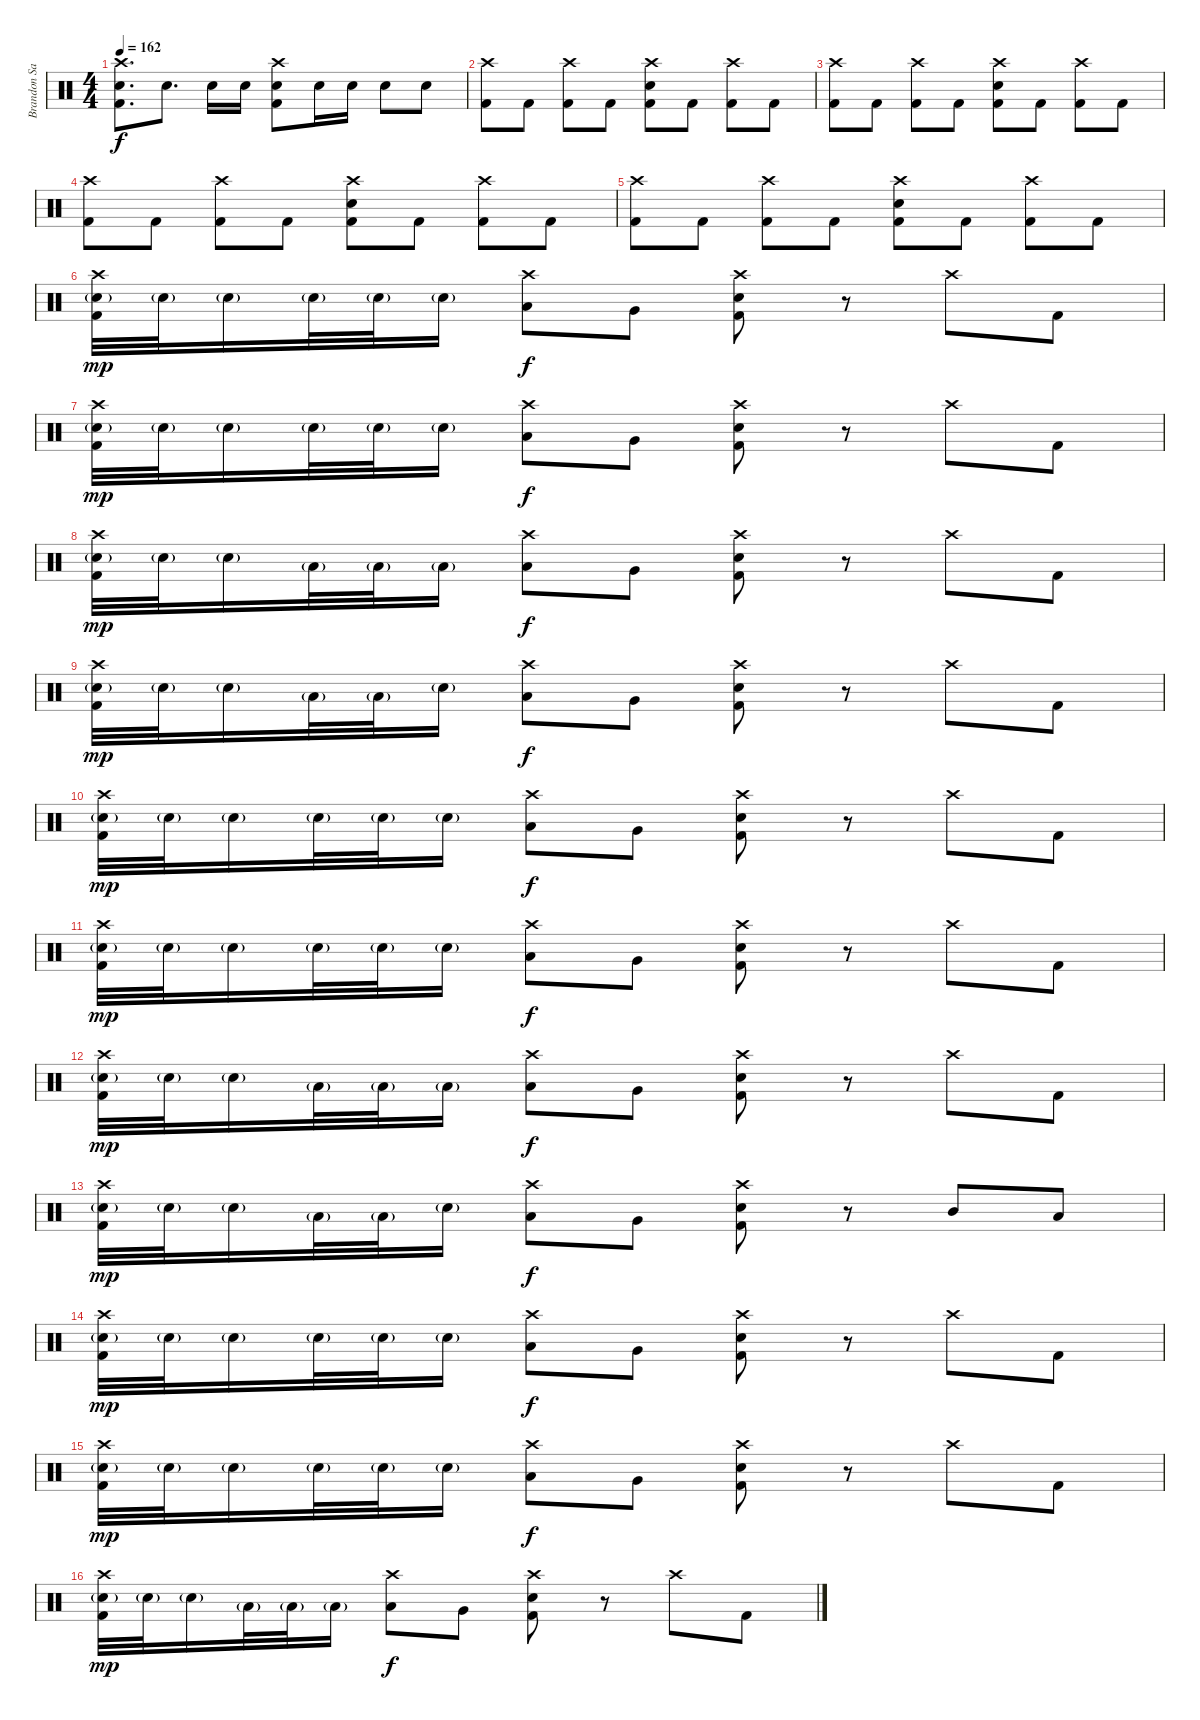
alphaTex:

\track ("Brandon Saller" "Brandon Sa") {instrument percussion}
\staff {score}
\articulation defaults
\ts (4 4)
\tempo 162
\clef neutral
\ks c
("Crash high (hit)" "Electric Snare (hit)" "Kick (hit) 2").8{d dy f} "Electric Snare (hit)".8{d} "Electric Snare (hit)".16 "Electric Snare (hit)".16 ("Crash high (hit)" "Electric Snare (hit)" "Kick (hit) 2").8 "Electric Snare (hit)".16 "Electric Snare (hit)".16 "Electric Snare (hit)".8 "Electric Snare (hit)".8 |
("Crash high (hit)" "Kick (hit) 2").8 "Kick (hit) 2".8 ("Crash high (hit)" "Kick (hit) 2").8 "Kick (hit) 2".8 ("Crash high (hit)" "Electric Snare (hit)" "Kick (hit) 2").8 "Kick (hit) 2".8 ("Crash high (hit)" "Kick (hit) 2").8 "Kick (hit) 2".8 |
("Crash high (hit)" "Kick (hit) 2").8 "Kick (hit) 2".8 ("Crash high (hit)" "Kick (hit) 2").8 "Kick (hit) 2".8 ("Crash high (hit)" "Electric Snare (hit)" "Kick (hit) 2").8 "Kick (hit) 2".8 ("Crash high (hit)" "Kick (hit) 2").8 "Kick (hit) 2".8 |
("Crash high (hit)" "Kick (hit) 2").8 "Kick (hit) 2".8 ("Crash high (hit)" "Kick (hit) 2").8 "Kick (hit) 2".8 ("Crash high (hit)" "Electric Snare (hit)" "Kick (hit) 2").8 "Kick (hit) 2".8 ("Crash high (hit)" "Kick (hit) 2").8 "Kick (hit) 2".8 |
("Crash high (hit)" "Kick (hit) 2").8 "Kick (hit) 2".8 ("Crash high (hit)" "Kick (hit) 2").8 "Kick (hit) 2".8 ("Crash high (hit)" "Electric Snare (hit)" "Kick (hit) 2").8 "Kick (hit) 2".8 ("Crash high (hit)" "Kick (hit) 2").8 "Kick (hit) 2".8 |
("Crash high (hit)" "Electric Snare (hit)"{g} "Kick (hit) 2").32{dy mp volume 12} "Electric Snare (hit)"{g}.32 "Electric Snare (hit)"{g}.16 "Electric Snare (hit)"{g}.32 "Electric Snare (hit)"{g}.32 "Electric Snare (hit)"{g}.16 ("Crash high (hit)" "Low Tom (hit)").8{dy f} "Very Low Tom (hit)".8 ("Crash high (hit)" "Electric Snare (hit)" "Kick (hit) 2").8 r.8 "Crash high (hit)".8 "Kick (hit) 2".8 |
("Crash high (hit)" "Electric Snare (hit)"{g} "Kick (hit) 2").32{dy mp} "Electric Snare (hit)"{g}.32 "Electric Snare (hit)"{g}.16 "Electric Snare (hit)"{g}.32 "Electric Snare (hit)"{g}.32 "Electric Snare (hit)"{g}.16 ("Crash high (hit)" "Low Tom (hit)").8{dy f} "Very Low Tom (hit)".8 ("Crash high (hit)" "Electric Snare (hit)" "Kick (hit) 2").8 r.8 "Crash high (hit)".8 "Kick (hit) 2".8 |
("Crash high (hit)" "Electric Snare (hit)"{g} "Kick (hit) 2").32{dy mp} "Electric Snare (hit)"{g}.32 "Electric Snare (hit)"{g}.16 "Low Floor Tom (hit)"{g}.32 "Low Floor Tom (hit)"{g}.32 "Low Floor Tom (hit)"{g}.16 ("Crash high (hit)" "Low Tom (hit)").8{dy f} "Very Low Tom (hit)".8 ("Crash high (hit)" "Electric Snare (hit)" "Kick (hit) 2").8 r.8 "Crash high (hit)".8 "Kick (hit) 2".8 |
("Crash high (hit)" "Electric Snare (hit)"{g} "Kick (hit) 2").32{dy mp} "Electric Snare (hit)"{g}.32 "Electric Snare (hit)"{g}.16 "Low Floor Tom (hit)"{g}.32 "Low Floor Tom (hit)"{g}.32 "Snare (hit)"{g}.16 ("Crash high (hit)" "Low Tom (hit)").8{dy f} "Very Low Tom (hit)".8 ("Crash high (hit)" "Electric Snare (hit)" "Kick (hit) 2").8 r.8 "Crash high (hit)".8 "Kick (hit) 2".8 |
("Crash high (hit)" "Electric Snare (hit)"{g} "Kick (hit) 2").32{dy mp} "Electric Snare (hit)"{g}.32 "Electric Snare (hit)"{g}.16 "Electric Snare (hit)"{g}.32 "Electric Snare (hit)"{g}.32 "Electric Snare (hit)"{g}.16 ("Crash high (hit)" "Low Tom (hit)").8{dy f} "Very Low Tom (hit)".8 ("Crash high (hit)" "Electric Snare (hit)" "Kick (hit) 2").8 r.8 "Crash high (hit)".8 "Kick (hit) 2".8 |
("Crash high (hit)" "Electric Snare (hit)"{g} "Kick (hit) 2").32{dy mp} "Electric Snare (hit)"{g}.32 "Electric Snare (hit)"{g}.16 "Electric Snare (hit)"{g}.32 "Electric Snare (hit)"{g}.32 "Electric Snare (hit)"{g}.16 ("Crash high (hit)" "Low Tom (hit)").8{dy f} "Very Low Tom (hit)".8 ("Crash high (hit)" "Electric Snare (hit)" "Kick (hit) 2").8 r.8 "Crash high (hit)".8 "Kick (hit) 2".8 |
("Crash high (hit)" "Electric Snare (hit)"{g} "Kick (hit) 2").32{dy mp} "Electric Snare (hit)"{g}.32 "Electric Snare (hit)"{g}.16 "Low Floor Tom (hit)"{g}.32 "Low Floor Tom (hit)"{g}.32 "Low Floor Tom (hit)"{g}.16 ("Crash high (hit)" "Low Tom (hit)").8{dy f} "Very Low Tom (hit)".8 ("Crash high (hit)" "Electric Snare (hit)" "Kick (hit) 2").8 r.8 "Crash high (hit)".8 "Kick (hit) 2".8 |
("Crash high (hit)" "Electric Snare (hit)"{g} "Kick (hit) 2").32{dy mp} "Electric Snare (hit)"{g}.32 "Electric Snare (hit)"{g}.16 "Low Floor Tom (hit)"{g}.32 "Low Floor Tom (hit)"{g}.32 "Snare (hit)"{g}.16 ("Crash high (hit)" "Low Tom (hit)").8{dy f} "Very Low Tom (hit)".8 ("Crash high (hit)" "Electric Snare (hit)" "Kick (hit) 2").8 r.8 "Mid Tom (hit)".8 "Low Tom (hit)".8 |
("Crash high (hit)" "Electric Snare (hit)"{g} "Kick (hit) 2").32{dy mp} "Electric Snare (hit)"{g}.32 "Electric Snare (hit)"{g}.16 "Electric Snare (hit)"{g}.32 "Electric Snare (hit)"{g}.32 "Electric Snare (hit)"{g}.16 ("Crash high (hit)" "Low Tom (hit)").8{dy f} "Very Low Tom (hit)".8 ("Crash high (hit)" "Electric Snare (hit)" "Kick (hit) 2").8 r.8 "Crash high (hit)".8 "Kick (hit) 2".8 |
("Crash high (hit)" "Electric Snare (hit)"{g} "Kick (hit) 2").32{dy mp} "Electric Snare (hit)"{g}.32 "Electric Snare (hit)"{g}.16 "Electric Snare (hit)"{g}.32 "Electric Snare (hit)"{g}.32 "Electric Snare (hit)"{g}.16 ("Crash high (hit)" "Low Tom (hit)").8{dy f} "Very Low Tom (hit)".8 ("Crash high (hit)" "Electric Snare (hit)" "Kick (hit) 2").8 r.8 "Crash high (hit)".8 "Kick (hit) 2".8 |
("Crash high (hit)" "Electric Snare (hit)"{g} "Kick (hit) 2").32{dy mp} "Electric Snare (hit)"{g}.32 "Electric Snare (hit)"{g}.16 "Low Floor Tom (hit)"{g}.32 "Low Floor Tom (hit)"{g}.32 "Low Floor Tom (hit)"{g}.16 ("Crash high (hit)" "Low Tom (hit)").8{dy f} "Very Low Tom (hit)".8 ("Crash high (hit)" "Electric Snare (hit)" "Kick (hit) 2").8 r.8 "Crash high (hit)".8 "Kick (hit) 2".8
